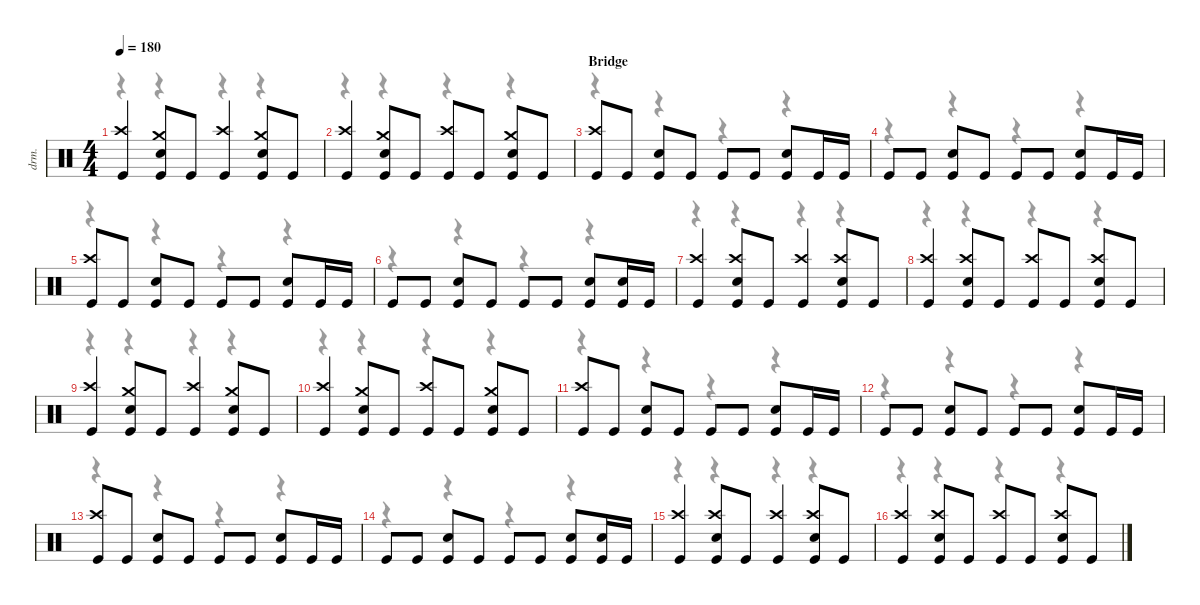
\defaultSystemsLayout 4
\hideDynamics
\bracketExtendMode nobrackets
\track ("Drums" "drm.") {instrument percussion}
\staff {score}
\articulation defaults
\voice
\ts (4 4)
\tempo 180
\clef neutral
\ks c
("Crash high (hit)" "Kick (hit)").4{dy f} ("Crash medium (hit)" "Snare (hit) 2" "Kick (hit)").8 "Kick (hit)".8 ("Crash high (hit)" "Kick (hit)").4 ("Crash medium (hit)" "Snare (hit) 2" "Kick (hit)").8 "Kick (hit)".8 |
("Crash high (hit)" "Kick (hit)").4 ("Crash medium (hit)" "Snare (hit) 2" "Kick (hit)").8 "Kick (hit)".8 ("Crash high (hit)" "Kick (hit)").8 "Kick (hit)".8 ("Crash medium (hit)" "Snare (hit) 2" "Kick (hit)").8 "Kick (hit)".8 |
\section ("" "Bridge")
("Crash high (hit)" "Kick (hit)").8 "Kick (hit)".8 ("Snare (hit) 2" "Kick (hit)").8 "Kick (hit)".8 "Kick (hit)".8 "Kick (hit)".8 ("Snare (hit) 2" "Kick (hit)").8 "Kick (hit)".16 "Kick (hit)".16 |
"Kick (hit)".8 "Kick (hit)".8 ("Snare (hit) 2" "Kick (hit)").8 "Kick (hit)".8 "Kick (hit)".8 "Kick (hit)".8 ("Snare (hit) 2" "Kick (hit)").8 "Kick (hit)".16 "Kick (hit)".16 |
("Crash high (hit)" "Kick (hit)").8 "Kick (hit)".8 ("Snare (hit) 2" "Kick (hit)").8 "Kick (hit)".8 "Kick (hit)".8 "Kick (hit)".8 ("Snare (hit) 2" "Kick (hit)").8 "Kick (hit)".16 "Kick (hit)".16 |
"Kick (hit)".8 "Kick (hit)".8 ("Snare (hit) 2" "Kick (hit)").8 "Kick (hit)".8 "Kick (hit)".8 "Kick (hit)".8 ("Snare (hit) 2" "Kick (hit)").8 ("Snare (hit) 2" "Kick (hit)").16 "Kick (hit)".16 |
("Crash high (hit)" "Kick (hit)").4 ("Crash high (hit)" "Snare (hit) 2" "Kick (hit)").8 "Kick (hit)".8 ("Crash high (hit)" "Kick (hit)").4 ("Crash high (hit)" "Snare (hit) 2" "Kick (hit)").8 "Kick (hit)".8 |
("Crash high (hit)" "Kick (hit)").4 ("Crash high (hit)" "Snare (hit) 2" "Kick (hit)").8 "Kick (hit)".8 ("Crash high (hit)" "Kick (hit)").8 "Kick (hit)".8 ("Crash high (hit)" "Snare (hit) 2" "Kick (hit)").8 "Kick (hit)".8 |
("Crash high (hit)" "Kick (hit)").4 ("Crash medium (hit)" "Snare (hit) 2" "Kick (hit)").8 "Kick (hit)".8 ("Crash high (hit)" "Kick (hit)").4 ("Crash medium (hit)" "Snare (hit) 2" "Kick (hit)").8 "Kick (hit)".8 |
("Crash high (hit)" "Kick (hit)").4 ("Crash medium (hit)" "Snare (hit) 2" "Kick (hit)").8 "Kick (hit)".8 ("Crash high (hit)" "Kick (hit)").8 "Kick (hit)".8 ("Crash medium (hit)" "Snare (hit) 2" "Kick (hit)").8 "Kick (hit)".8 |
("Crash high (hit)" "Kick (hit)").8 "Kick (hit)".8 ("Snare (hit) 2" "Kick (hit)").8 "Kick (hit)".8 "Kick (hit)".8 "Kick (hit)".8 ("Snare (hit) 2" "Kick (hit)").8 "Kick (hit)".16 "Kick (hit)".16 |
"Kick (hit)".8 "Kick (hit)".8 ("Snare (hit) 2" "Kick (hit)").8 "Kick (hit)".8 "Kick (hit)".8 "Kick (hit)".8 ("Snare (hit) 2" "Kick (hit)").8 "Kick (hit)".16 "Kick (hit)".16 |
("Crash high (hit)" "Kick (hit)").8 "Kick (hit)".8 ("Snare (hit) 2" "Kick (hit)").8 "Kick (hit)".8 "Kick (hit)".8 "Kick (hit)".8 ("Snare (hit) 2" "Kick (hit)").8 "Kick (hit)".16 "Kick (hit)".16 |
"Kick (hit)".8 "Kick (hit)".8 ("Snare (hit) 2" "Kick (hit)").8 "Kick (hit)".8 "Kick (hit)".8 "Kick (hit)".8 ("Snare (hit) 2" "Kick (hit)").8 ("Snare (hit) 2" "Kick (hit)").16 "Kick (hit)".16 |
("Crash high (hit)" "Kick (hit)").4 ("Crash high (hit)" "Snare (hit) 2" "Kick (hit)").8 "Kick (hit)".8 ("Crash high (hit)" "Kick (hit)").4 ("Crash high (hit)" "Snare (hit) 2" "Kick (hit)").8 "Kick (hit)".8 |
("Crash high (hit)" "Kick (hit)").4 ("Crash high (hit)" "Snare (hit) 2" "Kick (hit)").8 "Kick (hit)".8 ("Crash high (hit)" "Kick (hit)").8 "Kick (hit)".8 ("Crash high (hit)" "Snare (hit) 2" "Kick (hit)").8 "Kick (hit)".8
\voice
\clef neutral
\ottava regular
\simile none
\ks c
r.4{dy mf} r.4 r.4 r.4 |
r.4 r.4 r.4 r.4 |
r.4 r.4 r.4 r.4 |
r.4 r.4 r.4 r.4 |
r.4 r.4 r.4 r.4 |
r.4 r.4 r.4 r.4 |
r.4 r.4 r.4 r.4 |
r.4 r.4 r.4 r.4 |
r.4 r.4 r.4 r.4 |
r.4 r.4 r.4 r.4 |
r.4 r.4 r.4 r.4 |
r.4 r.4 r.4 r.4 |
r.4 r.4 r.4 r.4 |
r.4 r.4 r.4 r.4 |
r.4 r.4 r.4 r.4 |
r.4 r.4 r.4 r.4
